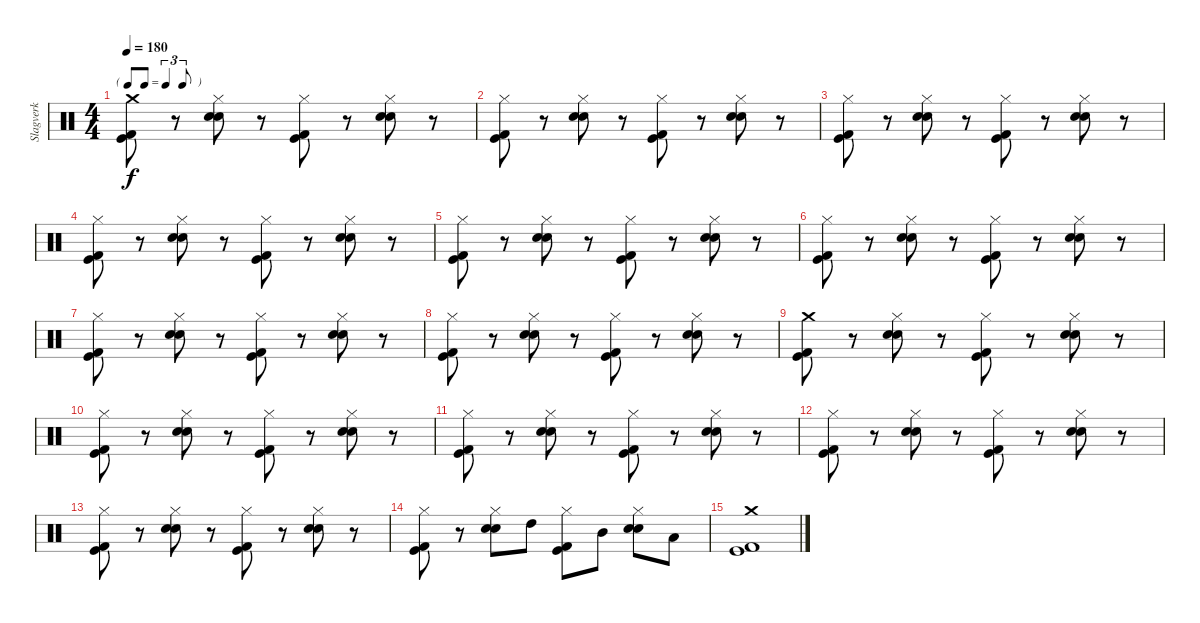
\track ("Slagverk" "Slagverk") {instrument percussion}
\staff {score}
\articulation defaults
\ts (4 4)
\tf triplet8th
\tempo 180
\clef neutral
\ks c
("Crash medium (hit)" "Kick (hit)" "Kick (hit) 2").8{dy f} r.8 ("Hi-Hat (closed)" "Electric Snare (hit)" "Snare (hit) 2").8 r.8 ("Hi-Hat (closed)" "Kick (hit)" "Kick (hit) 2").8 r.8 ("Hi-Hat (closed)" "Electric Snare (hit)" "Snare (hit) 2").8 r.8 |
("Hi-Hat (closed)" "Kick (hit)" "Kick (hit) 2").8 r.8 ("Hi-Hat (closed)" "Electric Snare (hit)" "Snare (hit) 2").8 r.8 ("Hi-Hat (closed)" "Kick (hit)" "Kick (hit) 2").8 r.8 ("Hi-Hat (closed)" "Electric Snare (hit)" "Snare (hit) 2").8 r.8 |
("Hi-Hat (closed)" "Kick (hit)" "Kick (hit) 2").8 r.8 ("Hi-Hat (closed)" "Electric Snare (hit)" "Snare (hit) 2").8 r.8 ("Hi-Hat (closed)" "Kick (hit)" "Kick (hit) 2").8 r.8 ("Hi-Hat (closed)" "Electric Snare (hit)" "Snare (hit) 2").8 r.8 |
("Hi-Hat (closed)" "Kick (hit)" "Kick (hit) 2").8 r.8 ("Hi-Hat (closed)" "Electric Snare (hit)" "Snare (hit) 2").8 r.8 ("Hi-Hat (closed)" "Kick (hit)" "Kick (hit) 2").8 r.8 ("Hi-Hat (closed)" "Electric Snare (hit)" "Snare (hit) 2").8 r.8 |
("Hi-Hat (closed)" "Kick (hit)" "Kick (hit) 2").8 r.8 ("Hi-Hat (closed)" "Electric Snare (hit)" "Snare (hit) 2").8 r.8 ("Hi-Hat (closed)" "Kick (hit)" "Kick (hit) 2").8 r.8 ("Hi-Hat (closed)" "Electric Snare (hit)" "Snare (hit) 2").8 r.8 |
("Hi-Hat (closed)" "Kick (hit)" "Kick (hit) 2").8 r.8 ("Hi-Hat (closed)" "Electric Snare (hit)" "Snare (hit) 2").8 r.8 ("Hi-Hat (closed)" "Kick (hit)" "Kick (hit) 2").8 r.8 ("Hi-Hat (closed)" "Electric Snare (hit)" "Snare (hit) 2").8 r.8 |
("Hi-Hat (closed)" "Kick (hit)" "Kick (hit) 2").8 r.8 ("Hi-Hat (closed)" "Electric Snare (hit)" "Snare (hit) 2").8 r.8 ("Hi-Hat (closed)" "Kick (hit)" "Kick (hit) 2").8 r.8 ("Hi-Hat (closed)" "Electric Snare (hit)" "Snare (hit) 2").8 r.8 |
("Hi-Hat (closed)" "Kick (hit)" "Kick (hit) 2").8 r.8 ("Hi-Hat (closed)" "Electric Snare (hit)" "Snare (hit) 2").8 r.8 ("Hi-Hat (closed)" "Kick (hit)" "Kick (hit) 2").8 r.8 ("Hi-Hat (closed)" "Electric Snare (hit)" "Snare (hit) 2").8 r.8 |
("Crash medium (hit)" "Kick (hit)" "Kick (hit) 2").8 r.8 ("Hi-Hat (closed)" "Electric Snare (hit)" "Snare (hit) 2").8 r.8 ("Hi-Hat (closed)" "Kick (hit)" "Kick (hit) 2").8 r.8 ("Hi-Hat (closed)" "Electric Snare (hit)" "Snare (hit) 2").8 r.8 |
("Hi-Hat (closed)" "Kick (hit)" "Kick (hit) 2").8 r.8 ("Hi-Hat (closed)" "Electric Snare (hit)" "Snare (hit) 2").8 r.8 ("Hi-Hat (closed)" "Kick (hit)" "Kick (hit) 2").8 r.8 ("Hi-Hat (closed)" "Electric Snare (hit)" "Snare (hit) 2").8 r.8 |
("Hi-Hat (closed)" "Kick (hit)" "Kick (hit) 2").8 r.8 ("Hi-Hat (closed)" "Electric Snare (hit)" "Snare (hit) 2").8 r.8 ("Hi-Hat (closed)" "Kick (hit)" "Kick (hit) 2").8 r.8 ("Hi-Hat (closed)" "Electric Snare (hit)" "Snare (hit) 2").8 r.8 |
("Hi-Hat (closed)" "Kick (hit)" "Kick (hit) 2").8 r.8 ("Hi-Hat (closed)" "Electric Snare (hit)" "Snare (hit) 2").8 r.8 ("Hi-Hat (closed)" "Kick (hit)" "Kick (hit) 2").8 r.8 ("Hi-Hat (closed)" "Electric Snare (hit)" "Snare (hit) 2").8 r.8 |
("Hi-Hat (closed)" "Kick (hit)" "Kick (hit) 2").8 r.8 ("Hi-Hat (closed)" "Electric Snare (hit)" "Snare (hit) 2").8 r.8 ("Hi-Hat (closed)" "Kick (hit)" "Kick (hit) 2").8 r.8 ("Hi-Hat (closed)" "Electric Snare (hit)" "Snare (hit) 2").8 r.8 |
("Hi-Hat (closed)" "Kick (hit)" "Kick (hit) 2").8 r.8 ("Hi-Hat (closed)" "Electric Snare (hit)" "Snare (hit) 2").8 "High Tom (hit)".8 ("Hi-Hat (closed)" "Kick (hit)" "Kick (hit) 2").8 "Mid Tom (hit)".8 ("Hi-Hat (closed)" "Electric Snare (hit)" "Snare (hit) 2").8 "Low Tom (hit)".8 |
("Crash medium (hit)" "Kick (hit)" "Kick (hit) 2").1
